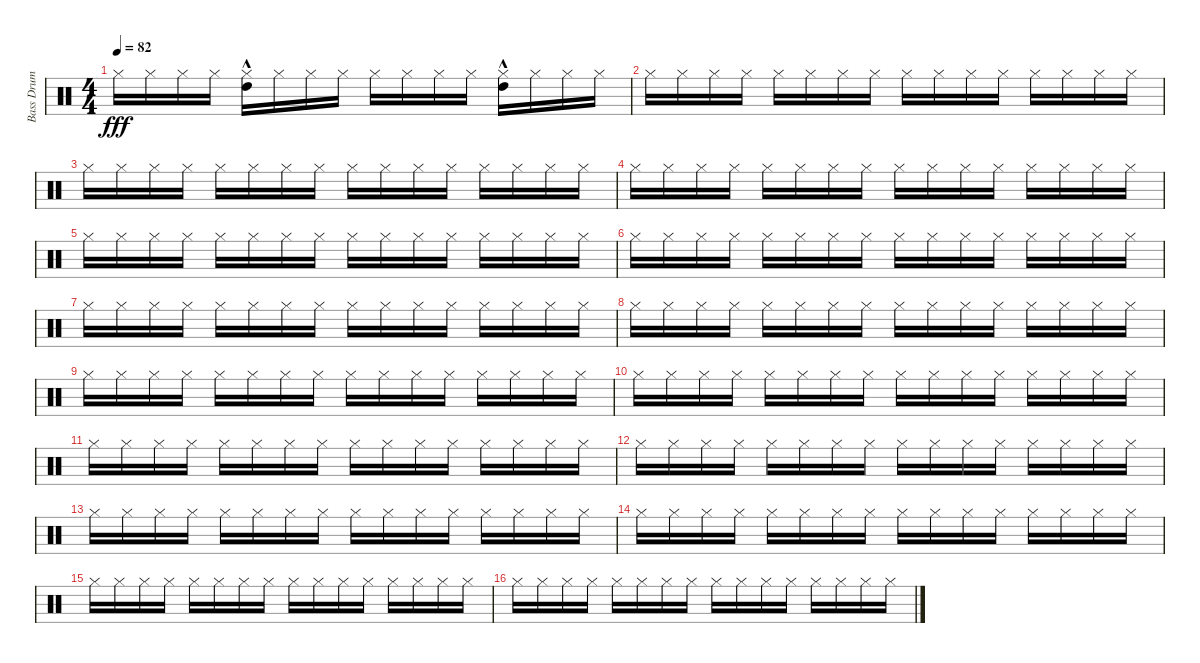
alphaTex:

\track ("Bass Drum" "Bass Drum") {instrument percussion}
\staff {score}
\articulation defaults
\ts (4 4)
\tempo 82
\clef neutral
\ks c "Hi-Hat (closed)".16{dy fff} "Hi-Hat (closed)".16 "Hi-Hat (closed)".16 "Hi-Hat (closed)".16
("Hi-Hat (closed)" "High Tom (hit)"{hac}).16 "Hi-Hat (closed)".16 "Hi-Hat (closed)".16 "Hi-Hat (closed)".16 "Hi-Hat (closed)".16 "Hi-Hat (closed)".16 "Hi-Hat (closed)".16 "Hi-Hat (closed)".16 ("Hi-Hat (closed)" "High Tom (hit)"{hac}).16 "Hi-Hat (closed)".16 "Hi-Hat (closed)".16 "Hi-Hat (closed)".16 |
"Hi-Hat (closed)".16 "Hi-Hat (closed)".16 "Hi-Hat (closed)".16 "Hi-Hat (closed)".16 "Hi-Hat (closed)".16 "Hi-Hat (closed)".16 "Hi-Hat (closed)".16 "Hi-Hat (closed)".16 "Hi-Hat (closed)".16 "Hi-Hat (closed)".16 "Hi-Hat (closed)".16 "Hi-Hat (closed)".16 "Hi-Hat (closed)".16 "Hi-Hat (closed)".16 "Hi-Hat (closed)".16 "Hi-Hat (closed)".16 |
"Hi-Hat (closed)".16 "Hi-Hat (closed)".16 "Hi-Hat (closed)".16 "Hi-Hat (closed)".16 "Hi-Hat (closed)".16 "Hi-Hat (closed)".16 "Hi-Hat (closed)".16 "Hi-Hat (closed)".16 "Hi-Hat (closed)".16 "Hi-Hat (closed)".16 "Hi-Hat (closed)".16 "Hi-Hat (closed)".16 "Hi-Hat (closed)".16 "Hi-Hat (closed)".16 "Hi-Hat (closed)".16 "Hi-Hat (closed)".16 |
"Hi-Hat (closed)".16 "Hi-Hat (closed)".16 "Hi-Hat (closed)".16 "Hi-Hat (closed)".16 "Hi-Hat (closed)".16 "Hi-Hat (closed)".16 "Hi-Hat (closed)".16 "Hi-Hat (closed)".16 "Hi-Hat (closed)".16 "Hi-Hat (closed)".16 "Hi-Hat (closed)".16 "Hi-Hat (closed)".16 "Hi-Hat (closed)".16 "Hi-Hat (closed)".16 "Hi-Hat (closed)".16 "Hi-Hat (closed)".16 |
"Hi-Hat (closed)".16 "Hi-Hat (closed)".16 "Hi-Hat (closed)".16 "Hi-Hat (closed)".16 "Hi-Hat (closed)".16 "Hi-Hat (closed)".16 "Hi-Hat (closed)".16 "Hi-Hat (closed)".16 "Hi-Hat (closed)".16 "Hi-Hat (closed)".16 "Hi-Hat (closed)".16 "Hi-Hat (closed)".16 "Hi-Hat (closed)".16 "Hi-Hat (closed)".16 "Hi-Hat (closed)".16 "Hi-Hat (closed)".16 |
"Hi-Hat (closed)".16 "Hi-Hat (closed)".16 "Hi-Hat (closed)".16 "Hi-Hat (closed)".16 "Hi-Hat (closed)".16 "Hi-Hat (closed)".16 "Hi-Hat (closed)".16 "Hi-Hat (closed)".16 "Hi-Hat (closed)".16 "Hi-Hat (closed)".16 "Hi-Hat (closed)".16 "Hi-Hat (closed)".16 "Hi-Hat (closed)".16 "Hi-Hat (closed)".16 "Hi-Hat (closed)".16 "Hi-Hat (closed)".16 |
"Hi-Hat (closed)".16 "Hi-Hat (closed)".16 "Hi-Hat (closed)".16 "Hi-Hat (closed)".16 "Hi-Hat (closed)".16 "Hi-Hat (closed)".16 "Hi-Hat (closed)".16 "Hi-Hat (closed)".16 "Hi-Hat (closed)".16 "Hi-Hat (closed)".16 "Hi-Hat (closed)".16 "Hi-Hat (closed)".16 "Hi-Hat (closed)".16 "Hi-Hat (closed)".16 "Hi-Hat (closed)".16 "Hi-Hat (closed)".16 |
"Hi-Hat (closed)".16 "Hi-Hat (closed)".16 "Hi-Hat (closed)".16 "Hi-Hat (closed)".16 "Hi-Hat (closed)".16 "Hi-Hat (closed)".16 "Hi-Hat (closed)".16 "Hi-Hat (closed)".16 "Hi-Hat (closed)".16 "Hi-Hat (closed)".16 "Hi-Hat (closed)".16 "Hi-Hat (closed)".16 "Hi-Hat (closed)".16 "Hi-Hat (closed)".16 "Hi-Hat (closed)".16 "Hi-Hat (closed)".16 |
"Hi-Hat (closed)".16 "Hi-Hat (closed)".16 "Hi-Hat (closed)".16 "Hi-Hat (closed)".16 "Hi-Hat (closed)".16 "Hi-Hat (closed)".16 "Hi-Hat (closed)".16 "Hi-Hat (closed)".16 "Hi-Hat (closed)".16 "Hi-Hat (closed)".16 "Hi-Hat (closed)".16 "Hi-Hat (closed)".16 "Hi-Hat (closed)".16 "Hi-Hat (closed)".16 "Hi-Hat (closed)".16 "Hi-Hat (closed)".16 |
"Hi-Hat (closed)".16 "Hi-Hat (closed)".16 "Hi-Hat (closed)".16 "Hi-Hat (closed)".16 "Hi-Hat (closed)".16 "Hi-Hat (closed)".16 "Hi-Hat (closed)".16 "Hi-Hat (closed)".16 "Hi-Hat (closed)".16 "Hi-Hat (closed)".16 "Hi-Hat (closed)".16 "Hi-Hat (closed)".16 "Hi-Hat (closed)".16 "Hi-Hat (closed)".16 "Hi-Hat (closed)".16 "Hi-Hat (closed)".16 |
"Hi-Hat (closed)".16 "Hi-Hat (closed)".16 "Hi-Hat (closed)".16 "Hi-Hat (closed)".16 "Hi-Hat (closed)".16 "Hi-Hat (closed)".16 "Hi-Hat (closed)".16 "Hi-Hat (closed)".16 "Hi-Hat (closed)".16 "Hi-Hat (closed)".16 "Hi-Hat (closed)".16 "Hi-Hat (closed)".16 "Hi-Hat (closed)".16 "Hi-Hat (closed)".16 "Hi-Hat (closed)".16 "Hi-Hat (closed)".16 |
"Hi-Hat (closed)".16 "Hi-Hat (closed)".16 "Hi-Hat (closed)".16 "Hi-Hat (closed)".16 "Hi-Hat (closed)".16 "Hi-Hat (closed)".16 "Hi-Hat (closed)".16 "Hi-Hat (closed)".16 "Hi-Hat (closed)".16 "Hi-Hat (closed)".16 "Hi-Hat (closed)".16 "Hi-Hat (closed)".16 "Hi-Hat (closed)".16 "Hi-Hat (closed)".16 "Hi-Hat (closed)".16 "Hi-Hat (closed)".16 |
"Hi-Hat (closed)".16 "Hi-Hat (closed)".16 "Hi-Hat (closed)".16 "Hi-Hat (closed)".16 "Hi-Hat (closed)".16 "Hi-Hat (closed)".16 "Hi-Hat (closed)".16 "Hi-Hat (closed)".16 "Hi-Hat (closed)".16 "Hi-Hat (closed)".16 "Hi-Hat (closed)".16 "Hi-Hat (closed)".16 "Hi-Hat (closed)".16 "Hi-Hat (closed)".16 "Hi-Hat (closed)".16 "Hi-Hat (closed)".16 |
"Hi-Hat (closed)".16 "Hi-Hat (closed)".16 "Hi-Hat (closed)".16 "Hi-Hat (closed)".16 "Hi-Hat (closed)".16 "Hi-Hat (closed)".16 "Hi-Hat (closed)".16 "Hi-Hat (closed)".16 "Hi-Hat (closed)".16 "Hi-Hat (closed)".16 "Hi-Hat (closed)".16 "Hi-Hat (closed)".16 "Hi-Hat (closed)".16 "Hi-Hat (closed)".16 "Hi-Hat (closed)".16 "Hi-Hat (closed)".16 |
"Hi-Hat (closed)".16 "Hi-Hat (closed)".16 "Hi-Hat (closed)".16 "Hi-Hat (closed)".16 "Hi-Hat (closed)".16 "Hi-Hat (closed)".16 "Hi-Hat (closed)".16 "Hi-Hat (closed)".16 "Hi-Hat (closed)".16 "Hi-Hat (closed)".16 "Hi-Hat (closed)".16 "Hi-Hat (closed)".16 "Hi-Hat (closed)".16 "Hi-Hat (closed)".16 "Hi-Hat (closed)".16 "Hi-Hat (closed)".16 |
"Hi-Hat (closed)".16 "Hi-Hat (closed)".16 "Hi-Hat (closed)".16 "Hi-Hat (closed)".16 "Hi-Hat (closed)".16 "Hi-Hat (closed)".16 "Hi-Hat (closed)".16 "Hi-Hat (closed)".16 "Hi-Hat (closed)".16 "Hi-Hat (closed)".16 "Hi-Hat (closed)".16 "Hi-Hat (closed)".16 "Hi-Hat (closed)".16 "Hi-Hat (closed)".16 "Hi-Hat (closed)".16 "Hi-Hat (closed)".16
